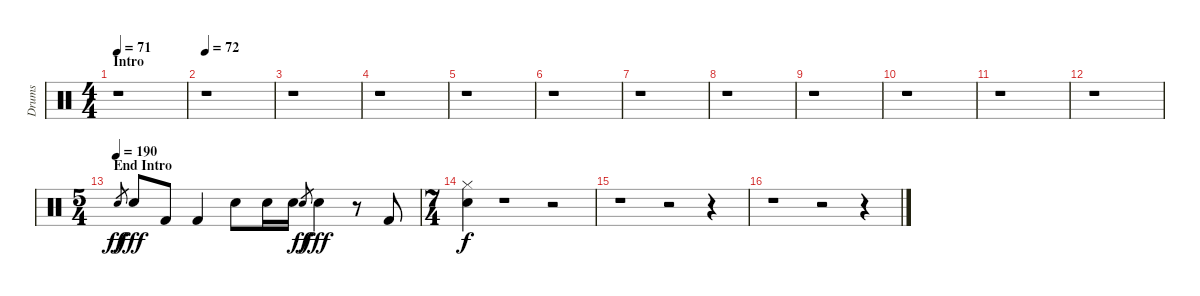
\track ("Drums" "Drums") {instrument percussion}
\staff {score}
\articulation defaults
\ts (4 4)
\section ("" "Intro")
\tempo 71
\clef neutral
\ks c
r.1{dy ff} |
\tempo 72
r.1 |
r.1 |
r.1 |
r.1 |
r.1 |
r.1 |
r.1 |
r.1 |
r.1 |
r.1 |
r.1 |
\ts (5 4)
\section ("" "End Intro")
\tempo (190)
"Snare (hit)".8{gr} "Snare (hit) 2".8{dy fff volume 5} "Kick (hit) 2".8 "Kick (hit) 2".4 "Snare (hit) 2".8 "Snare (hit) 2".16 "Snare (hit) 2".16 "Snare (hit)".8{gr dy ff} "Snare (hit) 2".4{dy fff} r.8 "Kick (hit) 2".8 |
\ts (7 4)
("Snare (hit) 2" "Hi-Hat (closed)").4{dy f} r.1 r.2 |
r.1 r.2 r.4 |
r.1 r.2 r.4
